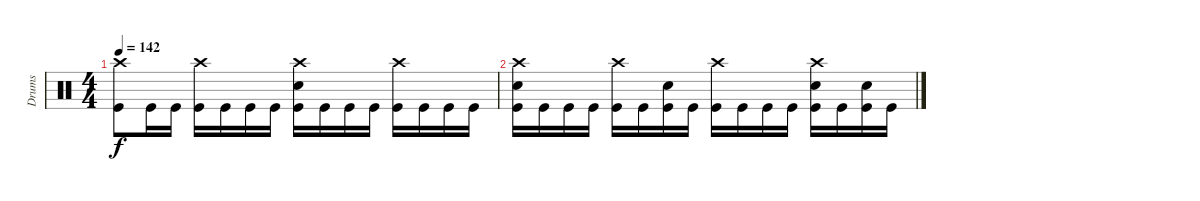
\track ("Drums" "Drums") {instrument percussion}
\staff
\articulation defaults
\ts (4 4)
\tempo 142
\clef neutral
\ks c
("Crash high (hit)" "Kick (hit)").8{dy f} "Kick (hit)".16 "Kick (hit)".16 ("Crash high (hit)" "Kick (hit)").16 "Kick (hit)".16 "Kick (hit)".16 "Kick (hit)".16 ("Crash high (hit)" "Electric Snare (hit)" "Kick (hit)").16 "Kick (hit)".16 "Kick (hit)".16 "Kick (hit)".16 ("Crash high (hit)" "Kick (hit)").16 "Kick (hit)".16 "Kick (hit)".16 "Kick (hit)".16 |
("Crash high (hit)" "Electric Snare (hit)" "Kick (hit)").16 "Kick (hit)".16 "Kick (hit)".16 "Kick (hit)".16 ("Crash high (hit)" "Kick (hit)").16 "Kick (hit)".16 ("Electric Snare (hit)" "Kick (hit)").16 "Kick (hit)".16 ("Crash high (hit)" "Kick (hit)").16 "Kick (hit)".16 "Kick (hit)".16 "Kick (hit)".16 ("Crash high (hit)" "Electric Snare (hit)" "Kick (hit)").16 "Kick (hit)".16 ("Electric Snare (hit)" "Kick (hit)").16 "Kick (hit)".16
